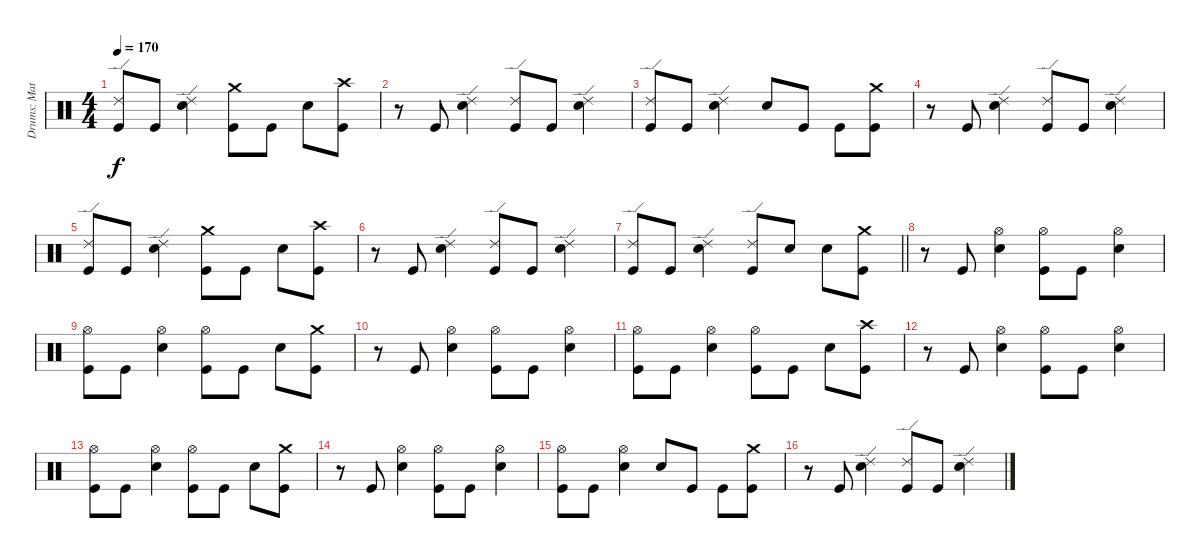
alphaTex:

\track ("Drums: Matt" "Drums: Mat") {instrument percussion}
\staff {score}
\articulation defaults
\ts (4 4)
\tempo 170
\clef neutral
\ks c
("Kick (hit)" "Ride (edge) 2").8{dy f} "Kick (hit)".8 ("Snare (hit) 2" "Ride (edge) 2").4 ("Crash medium (hit)" "Kick (hit)").8 "Kick (hit)".8 "Snare (hit) 2".8 ("Kick (hit)" "Crash high (hit)").8 |
r.8 "Kick (hit)".8 ("Snare (hit) 2" "Ride (edge) 2").4 ("Kick (hit)" "Ride (edge) 2").8 "Kick (hit)".8 ("Ride (edge) 2" "Snare (hit) 2").4 |
("Kick (hit)" "Ride (edge) 2").8 "Kick (hit)".8 ("Ride (edge) 2" "Snare (hit) 2").4 "Snare (hit) 2".8 "Kick (hit)".8 "Kick (hit)".8 ("Crash medium (hit)" "Kick (hit)").8 |
r.8 "Kick (hit)".8 ("Snare (hit) 2" "Ride (edge) 2").4 ("Kick (hit)" "Ride (edge) 2").8 "Kick (hit)".8 ("Ride (edge) 2" "Snare (hit) 2").4 |
("Ride (edge) 2" "Kick (hit)").8 "Kick (hit)".8 ("Ride (edge) 2" "Snare (hit) 2").4 ("Kick (hit)" "Crash medium (hit)").8 "Kick (hit)".8 "Snare (hit) 2".8 ("Kick (hit)" "Crash high (hit)").8 |
r.8 "Kick (hit)".8 ("Snare (hit) 2" "Ride (edge) 2").4 ("Ride (edge) 2" "Kick (hit)").8 "Kick (hit)".8 ("Ride (edge) 2" "Snare (hit) 2").4 |
\barLineRight lightlight
("Kick (hit)" "Ride (edge) 2").8 "Kick (hit)".8 ("Ride (edge) 2" "Snare (hit) 2").4 ("Ride (edge) 2" "Kick (hit)").8 "Snare (hit) 2".8 "Snare (hit) 2".8 ("Kick (hit)" "Crash medium (hit)").8 |
r.8 "Kick (hit)".8 ("Hi-Hat (open)" "Snare (hit) 2").4 ("Kick (hit)" "Hi-Hat (open)").8 "Kick (hit)".8 ("Snare (hit) 2" "Hi-Hat (open)").4 |
("Kick (hit)" "Hi-Hat (open)").8 "Kick (hit)".8 ("Hi-Hat (open)" "Snare (hit) 2").4 ("Hi-Hat (open)" "Kick (hit)").8 "Kick (hit)".8 "Snare (hit) 2".8 ("Kick (hit)" "Crash medium (hit)").8 |
r.8 "Kick (hit)".8 ("Snare (hit) 2" "Hi-Hat (open)").4 ("Hi-Hat (open)" "Kick (hit)").8 "Kick (hit)".8 ("Snare (hit) 2" "Hi-Hat (open)").4 |
("Hi-Hat (open)" "Kick (hit)").8 "Kick (hit)".8 ("Hi-Hat (open)" "Snare (hit) 2").4 ("Kick (hit)" "Hi-Hat (open)").8 "Kick (hit)".8 "Snare (hit) 2".8 ("Kick (hit)" "Crash high (hit)").8 |
r.8 "Kick (hit)".8 ("Snare (hit) 2" "Hi-Hat (open)").4 ("Kick (hit)" "Hi-Hat (open)").8 "Kick (hit)".8 ("Hi-Hat (open)" "Snare (hit) 2").4 |
("Kick (hit)" "Hi-Hat (open)").8 "Kick (hit)".8 ("Snare (hit) 2" "Hi-Hat (open)").4 ("Kick (hit)" "Hi-Hat (open)").8 "Kick (hit)".8 "Snare (hit) 2".8 ("Kick (hit)" "Crash medium (hit)").8 |
r.8 "Kick (hit)".8 ("Hi-Hat (open)" "Snare (hit) 2").4 ("Kick (hit)" "Hi-Hat (open)").8 "Kick (hit)".8 ("Hi-Hat (open)" "Snare (hit) 2").4 |
("Hi-Hat (open)" "Kick (hit)").8 "Kick (hit)".8 ("Hi-Hat (open)" "Snare (hit) 2").4 "Snare (hit) 2".8 "Kick (hit)".8 "Kick (hit)".8 ("Crash medium (hit)" "Kick (hit)").8 |
r.8 "Kick (hit)".8 ("Snare (hit) 2" "Ride (edge) 2").4 ("Kick (hit)" "Ride (edge) 2").8 "Kick (hit)".8 ("Ride (edge) 2" "Snare (hit) 2").4
